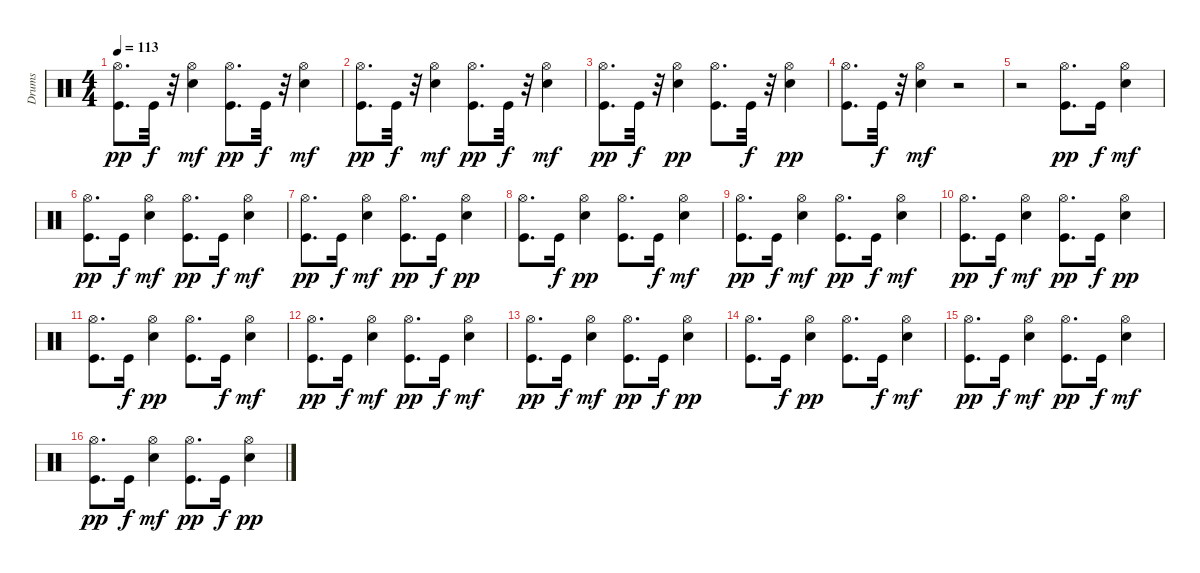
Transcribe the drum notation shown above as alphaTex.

\track ("Drums" "Drums") {instrument percussion}
\staff {score}
\articulation defaults
\ts (4 4)
\tempo 113
\clef neutral
\ks c
("Hi-Hat (open)" "Kick (hit)").8{d dy pp} "Kick (hit)".32{dy f} r.32 ("Hi-Hat (open)" "Electric Snare (hit)").4{dy mf} ("Hi-Hat (open)" "Kick (hit)").8{d dy pp} "Kick (hit)".32{dy f} r.32 ("Hi-Hat (open)" "Electric Snare (hit)").4{dy mf} |
("Hi-Hat (open)" "Kick (hit)").8{d dy pp} "Kick (hit)".32{dy f} r.32 ("Hi-Hat (open)" "Electric Snare (hit)").4{dy mf} ("Hi-Hat (open)" "Kick (hit)").8{d dy pp} "Kick (hit)".32{dy f} r.32 ("Hi-Hat (open)" "Electric Snare (hit)").4{dy mf} |
("Hi-Hat (open)" "Kick (hit)").8{d dy pp} "Kick (hit)".32{dy f} r.32 ("Electric Snare (hit)" "Hi-Hat (open)").4{dy pp} ("Kick (hit)" "Hi-Hat (open)").8{d} "Kick (hit)".32{dy f} r.32 ("Electric Snare (hit)" "Hi-Hat (open)").4{dy pp} |
("Hi-Hat (open)" "Kick (hit)").8{d} "Kick (hit)".32{dy f} r.32 ("Hi-Hat (open)" "Electric Snare (hit)").4{dy mf} r.2 |
r.2 ("Hi-Hat (open)" "Kick (hit)").8{d dy pp} "Kick (hit)".16{dy f} ("Hi-Hat (open)" "Electric Snare (hit)").4{dy mf} |
("Hi-Hat (open)" "Kick (hit)").8{d dy pp} "Kick (hit)".16{dy f} ("Hi-Hat (open)" "Electric Snare (hit)").4{dy mf} ("Hi-Hat (open)" "Kick (hit)").8{d dy pp} "Kick (hit)".16{dy f} ("Hi-Hat (open)" "Electric Snare (hit)").4{dy mf} |
("Hi-Hat (open)" "Kick (hit)").8{d dy pp} "Kick (hit)".16{dy f} ("Hi-Hat (open)" "Electric Snare (hit)").4{dy mf} ("Hi-Hat (open)" "Kick (hit)").8{d dy pp} "Kick (hit)".16{dy f} ("Electric Snare (hit)" "Hi-Hat (open)").4{dy pp} |
("Kick (hit)" "Hi-Hat (open)").8{d} "Kick (hit)".16{dy f} ("Electric Snare (hit)" "Hi-Hat (open)").4{dy pp} ("Hi-Hat (open)" "Kick (hit)").8{d} "Kick (hit)".16{dy f} ("Hi-Hat (open)" "Electric Snare (hit)").4{dy mf} |
("Hi-Hat (open)" "Kick (hit)").8{d dy pp} "Kick (hit)".16{dy f} ("Hi-Hat (open)" "Electric Snare (hit)").4{dy mf} ("Hi-Hat (open)" "Kick (hit)").8{d dy pp} "Kick (hit)".16{dy f} ("Hi-Hat (open)" "Electric Snare (hit)").4{dy mf} |
("Hi-Hat (open)" "Kick (hit)").8{d dy pp} "Kick (hit)".16{dy f} ("Hi-Hat (open)" "Electric Snare (hit)").4{dy mf} ("Hi-Hat (open)" "Kick (hit)").8{d dy pp} "Kick (hit)".16{dy f} ("Electric Snare (hit)" "Hi-Hat (open)").4{dy pp} |
("Kick (hit)" "Hi-Hat (open)").8{d} "Kick (hit)".16{dy f} ("Electric Snare (hit)" "Hi-Hat (open)").4{dy pp} ("Hi-Hat (open)" "Kick (hit)").8{d} "Kick (hit)".16{dy f} ("Hi-Hat (open)" "Electric Snare (hit)").4{dy mf} |
("Hi-Hat (open)" "Kick (hit)").8{d dy pp} "Kick (hit)".16{dy f} ("Hi-Hat (open)" "Electric Snare (hit)").4{dy mf} ("Hi-Hat (open)" "Kick (hit)").8{d dy pp} "Kick (hit)".16{dy f} ("Hi-Hat (open)" "Electric Snare (hit)").4{dy mf} |
("Hi-Hat (open)" "Kick (hit)").8{d dy pp} "Kick (hit)".16{dy f} ("Hi-Hat (open)" "Electric Snare (hit)").4{dy mf} ("Hi-Hat (open)" "Kick (hit)").8{d dy pp} "Kick (hit)".16{dy f} ("Electric Snare (hit)" "Hi-Hat (open)").4{dy pp} |
("Kick (hit)" "Hi-Hat (open)").8{d} "Kick (hit)".16{dy f} ("Electric Snare (hit)" "Hi-Hat (open)").4{dy pp} ("Hi-Hat (open)" "Kick (hit)").8{d} "Kick (hit)".16{dy f} ("Hi-Hat (open)" "Electric Snare (hit)").4{dy mf} |
("Hi-Hat (open)" "Kick (hit)").8{d dy pp} "Kick (hit)".16{dy f} ("Hi-Hat (open)" "Electric Snare (hit)").4{dy mf} ("Hi-Hat (open)" "Kick (hit)").8{d dy pp} "Kick (hit)".16{dy f} ("Hi-Hat (open)" "Electric Snare (hit)").4{dy mf} |
("Hi-Hat (open)" "Kick (hit)").8{d dy pp} "Kick (hit)".16{dy f} ("Hi-Hat (open)" "Electric Snare (hit)").4{dy mf} ("Hi-Hat (open)" "Kick (hit)").8{d dy pp} "Kick (hit)".16{dy f} ("Electric Snare (hit)" "Hi-Hat (open)").4{dy pp}
